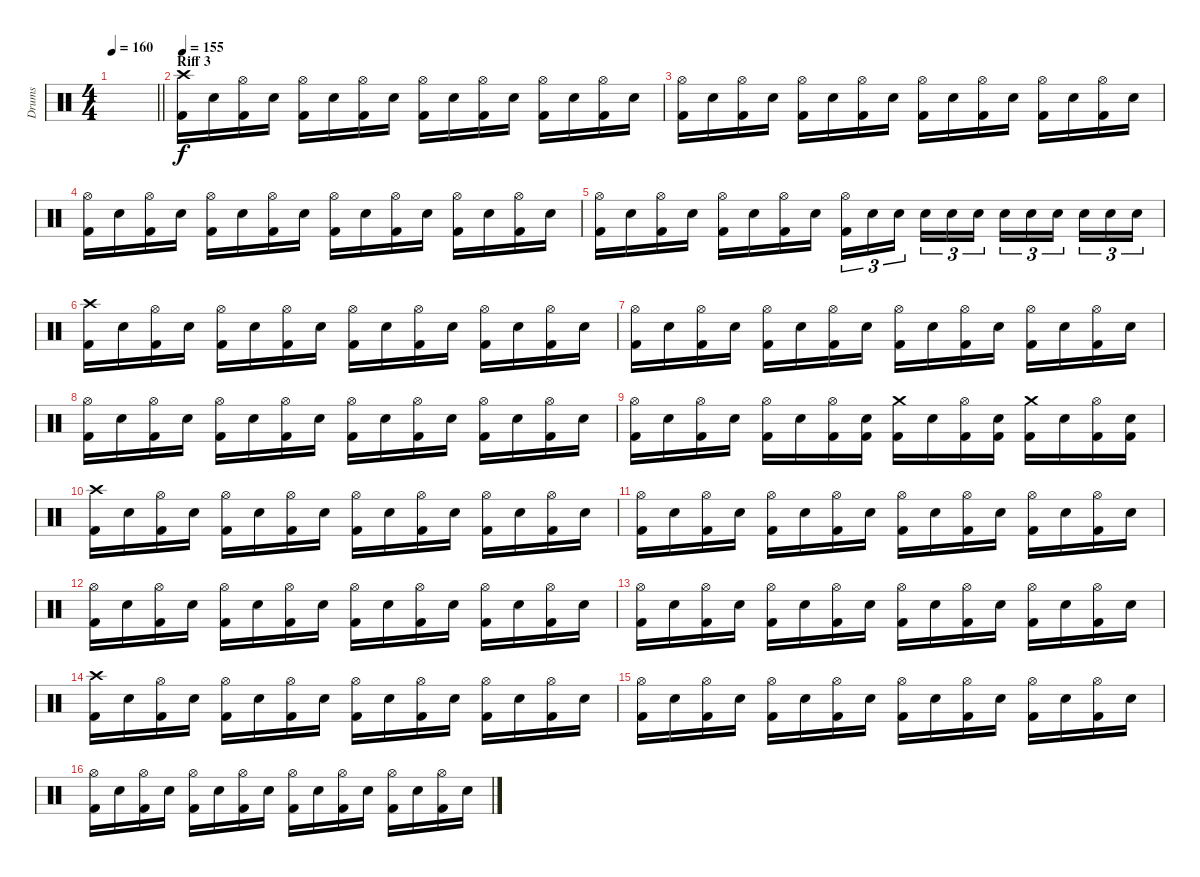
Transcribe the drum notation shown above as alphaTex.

\track ("Drums" "Drums") {instrument percussion}
\staff {score}
\articulation defaults
\ts (4 4)
\tempo 160
\clef neutral
\barLineRight lightlight
\ks c
|
\section ("" "Riff 3")
\tempo 150
\tempo 155
("Crash high (hit)" "Kick (hit) 2").16 "Electric Snare (hit)".16 ("Hi-Hat (open)" "Kick (hit) 2").16 "Electric Snare (hit)".16 ("Hi-Hat (open)" "Kick (hit) 2").16 "Electric Snare (hit)".16 ("Hi-Hat (open)" "Kick (hit) 2").16 "Electric Snare (hit)".16 ("Hi-Hat (open)" "Kick (hit) 2").16 "Electric Snare (hit)".16 ("Hi-Hat (open)" "Kick (hit) 2").16 "Electric Snare (hit)".16 ("Hi-Hat (open)" "Kick (hit) 2").16 "Electric Snare (hit)".16 ("Hi-Hat (open)" "Kick (hit) 2").16 "Electric Snare (hit)".16 |
("Hi-Hat (open)" "Kick (hit) 2").16 "Electric Snare (hit)".16 ("Hi-Hat (open)" "Kick (hit) 2").16 "Electric Snare (hit)".16 ("Hi-Hat (open)" "Kick (hit) 2").16 "Electric Snare (hit)".16 ("Hi-Hat (open)" "Kick (hit) 2").16 "Electric Snare (hit)".16 ("Hi-Hat (open)" "Kick (hit) 2").16 "Electric Snare (hit)".16 ("Hi-Hat (open)" "Kick (hit) 2").16 "Electric Snare (hit)".16 ("Hi-Hat (open)" "Kick (hit) 2").16 "Electric Snare (hit)".16 ("Hi-Hat (open)" "Kick (hit) 2").16 "Electric Snare (hit)".16 |
("Hi-Hat (open)" "Kick (hit) 2").16 "Electric Snare (hit)".16 ("Hi-Hat (open)" "Kick (hit) 2").16 "Electric Snare (hit)".16 ("Hi-Hat (open)" "Kick (hit) 2").16 "Electric Snare (hit)".16 ("Hi-Hat (open)" "Kick (hit) 2").16 "Electric Snare (hit)".16 ("Hi-Hat (open)" "Kick (hit) 2").16 "Electric Snare (hit)".16 ("Hi-Hat (open)" "Kick (hit) 2").16 "Electric Snare (hit)".16 ("Hi-Hat (open)" "Kick (hit) 2").16 "Electric Snare (hit)".16 ("Hi-Hat (open)" "Kick (hit) 2").16 "Electric Snare (hit)".16 |
("Hi-Hat (open)" "Kick (hit) 2").16 "Electric Snare (hit)".16 ("Hi-Hat (open)" "Kick (hit) 2").16 "Electric Snare (hit)".16 ("Hi-Hat (open)" "Kick (hit) 2").16 "Electric Snare (hit)".16 ("Hi-Hat (open)" "Kick (hit) 2").16 "Electric Snare (hit)".16 ("Hi-Hat (open)" "Kick (hit) 2").16{tu (3 2)} "Electric Snare (hit)".16{tu (3 2)} "Electric Snare (hit)".16{tu (3 2) beam splitsecondary} "Electric Snare (hit)".16{tu (3 2)} "Electric Snare (hit)".16{tu (3 2)} "Electric Snare (hit)".16{tu (3 2)} "Electric Snare (hit)".16{tu (3 2)} "Electric Snare (hit)".16{tu (3 2)} "Electric Snare (hit)".16{tu (3 2) beam splitsecondary} "Electric Snare (hit)".16{tu (3 2)} "Electric Snare (hit)".16{tu (3 2)} "Electric Snare (hit)".16{tu (3 2)} |
("Crash high (hit)" "Kick (hit) 2").16 "Electric Snare (hit)".16 ("Hi-Hat (open)" "Kick (hit) 2").16 "Electric Snare (hit)".16 ("Hi-Hat (open)" "Kick (hit) 2").16 "Electric Snare (hit)".16 ("Hi-Hat (open)" "Kick (hit) 2").16 "Electric Snare (hit)".16 ("Hi-Hat (open)" "Kick (hit) 2").16 "Electric Snare (hit)".16 ("Hi-Hat (open)" "Kick (hit) 2").16 "Electric Snare (hit)".16 ("Hi-Hat (open)" "Kick (hit) 2").16 "Electric Snare (hit)".16 ("Hi-Hat (open)" "Kick (hit) 2").16 "Electric Snare (hit)".16 |
("Hi-Hat (open)" "Kick (hit) 2").16 "Electric Snare (hit)".16 ("Hi-Hat (open)" "Kick (hit) 2").16 "Electric Snare (hit)".16 ("Hi-Hat (open)" "Kick (hit) 2").16 "Electric Snare (hit)".16 ("Hi-Hat (open)" "Kick (hit) 2").16 "Electric Snare (hit)".16 ("Hi-Hat (open)" "Kick (hit) 2").16 "Electric Snare (hit)".16 ("Hi-Hat (open)" "Kick (hit) 2").16 "Electric Snare (hit)".16 ("Hi-Hat (open)" "Kick (hit) 2").16 "Electric Snare (hit)".16 ("Hi-Hat (open)" "Kick (hit) 2").16 "Electric Snare (hit)".16 |
("Hi-Hat (open)" "Kick (hit) 2").16 "Electric Snare (hit)".16 ("Hi-Hat (open)" "Kick (hit) 2").16 "Electric Snare (hit)".16 ("Hi-Hat (open)" "Kick (hit) 2").16 "Electric Snare (hit)".16 ("Hi-Hat (open)" "Kick (hit) 2").16 "Electric Snare (hit)".16 ("Hi-Hat (open)" "Kick (hit) 2").16 "Electric Snare (hit)".16 ("Hi-Hat (open)" "Kick (hit) 2").16 "Electric Snare (hit)".16 ("Hi-Hat (open)" "Kick (hit) 2").16 "Electric Snare (hit)".16 ("Hi-Hat (open)" "Kick (hit) 2").16 "Electric Snare (hit)".16 |
("Hi-Hat (open)" "Kick (hit) 2").16 "Electric Snare (hit)".16 ("Hi-Hat (open)" "Kick (hit) 2").16 "Electric Snare (hit)".16 ("Hi-Hat (open)" "Kick (hit) 2").16 "Electric Snare (hit)".16 ("Hi-Hat (open)" "Kick (hit) 2").16 ("Electric Snare (hit)" "Kick (hit) 2").16 ("Crash medium (hit)" "Kick (hit) 2").16 "Electric Snare (hit)".16 ("Hi-Hat (open)" "Kick (hit) 2").16 ("Electric Snare (hit)" "Kick (hit) 2").16 ("Crash medium (hit)" "Kick (hit) 2").16 "Electric Snare (hit)".16 ("Hi-Hat (open)" "Kick (hit) 2").16 ("Electric Snare (hit)" "Kick (hit) 2").16 |
("Crash high (hit)" "Kick (hit) 2").16 "Electric Snare (hit)".16 ("Hi-Hat (open)" "Kick (hit) 2").16 "Electric Snare (hit)".16 ("Hi-Hat (open)" "Kick (hit) 2").16 "Electric Snare (hit)".16 ("Hi-Hat (open)" "Kick (hit) 2").16 "Electric Snare (hit)".16 ("Hi-Hat (open)" "Kick (hit) 2").16 "Electric Snare (hit)".16 ("Hi-Hat (open)" "Kick (hit) 2").16 "Electric Snare (hit)".16 ("Hi-Hat (open)" "Kick (hit) 2").16 "Electric Snare (hit)".16 ("Hi-Hat (open)" "Kick (hit) 2").16 "Electric Snare (hit)".16 |
("Hi-Hat (open)" "Kick (hit) 2").16 "Electric Snare (hit)".16 ("Hi-Hat (open)" "Kick (hit) 2").16 "Electric Snare (hit)".16 ("Hi-Hat (open)" "Kick (hit) 2").16 "Electric Snare (hit)".16 ("Hi-Hat (open)" "Kick (hit) 2").16 "Electric Snare (hit)".16 ("Hi-Hat (open)" "Kick (hit) 2").16 "Electric Snare (hit)".16 ("Hi-Hat (open)" "Kick (hit) 2").16 "Electric Snare (hit)".16 ("Hi-Hat (open)" "Kick (hit) 2").16 "Electric Snare (hit)".16 ("Hi-Hat (open)" "Kick (hit) 2").16 "Electric Snare (hit)".16 |
("Hi-Hat (open)" "Kick (hit) 2").16 "Electric Snare (hit)".16 ("Hi-Hat (open)" "Kick (hit) 2").16 "Electric Snare (hit)".16 ("Hi-Hat (open)" "Kick (hit) 2").16 "Electric Snare (hit)".16 ("Hi-Hat (open)" "Kick (hit) 2").16 "Electric Snare (hit)".16 ("Hi-Hat (open)" "Kick (hit) 2").16 "Electric Snare (hit)".16 ("Hi-Hat (open)" "Kick (hit) 2").16 "Electric Snare (hit)".16 ("Hi-Hat (open)" "Kick (hit) 2").16 "Electric Snare (hit)".16 ("Hi-Hat (open)" "Kick (hit) 2").16 "Electric Snare (hit)".16 |
("Hi-Hat (open)" "Kick (hit) 2").16 "Electric Snare (hit)".16 ("Hi-Hat (open)" "Kick (hit) 2").16 "Electric Snare (hit)".16 ("Hi-Hat (open)" "Kick (hit) 2").16 "Electric Snare (hit)".16 ("Hi-Hat (open)" "Kick (hit) 2").16 "Electric Snare (hit)".16 ("Hi-Hat (open)" "Kick (hit) 2").16 "Electric Snare (hit)".16 ("Hi-Hat (open)" "Kick (hit) 2").16 "Electric Snare (hit)".16 ("Hi-Hat (open)" "Kick (hit) 2").16 "Electric Snare (hit)".16 ("Hi-Hat (open)" "Kick (hit) 2").16 "Electric Snare (hit)".16 |
("Crash high (hit)" "Kick (hit) 2").16 "Electric Snare (hit)".16 ("Hi-Hat (open)" "Kick (hit) 2").16 "Electric Snare (hit)".16 ("Hi-Hat (open)" "Kick (hit) 2").16 "Electric Snare (hit)".16 ("Hi-Hat (open)" "Kick (hit) 2").16 "Electric Snare (hit)".16 ("Hi-Hat (open)" "Kick (hit) 2").16 "Electric Snare (hit)".16 ("Hi-Hat (open)" "Kick (hit) 2").16 "Electric Snare (hit)".16 ("Hi-Hat (open)" "Kick (hit) 2").16 "Electric Snare (hit)".16 ("Hi-Hat (open)" "Kick (hit) 2").16 "Electric Snare (hit)".16 |
("Hi-Hat (open)" "Kick (hit) 2").16 "Electric Snare (hit)".16 ("Hi-Hat (open)" "Kick (hit) 2").16 "Electric Snare (hit)".16 ("Hi-Hat (open)" "Kick (hit) 2").16 "Electric Snare (hit)".16 ("Hi-Hat (open)" "Kick (hit) 2").16 "Electric Snare (hit)".16 ("Hi-Hat (open)" "Kick (hit) 2").16 "Electric Snare (hit)".16 ("Hi-Hat (open)" "Kick (hit) 2").16 "Electric Snare (hit)".16 ("Hi-Hat (open)" "Kick (hit) 2").16 "Electric Snare (hit)".16 ("Hi-Hat (open)" "Kick (hit) 2").16 "Electric Snare (hit)".16 |
("Hi-Hat (open)" "Kick (hit) 2").16 "Electric Snare (hit)".16 ("Hi-Hat (open)" "Kick (hit) 2").16 "Electric Snare (hit)".16 ("Hi-Hat (open)" "Kick (hit) 2").16 "Electric Snare (hit)".16 ("Hi-Hat (open)" "Kick (hit) 2").16 "Electric Snare (hit)".16 ("Hi-Hat (open)" "Kick (hit) 2").16 "Electric Snare (hit)".16 ("Hi-Hat (open)" "Kick (hit) 2").16 "Electric Snare (hit)".16 ("Hi-Hat (open)" "Kick (hit) 2").16 "Electric Snare (hit)".16 ("Hi-Hat (open)" "Kick (hit) 2").16 "Electric Snare (hit)".16
